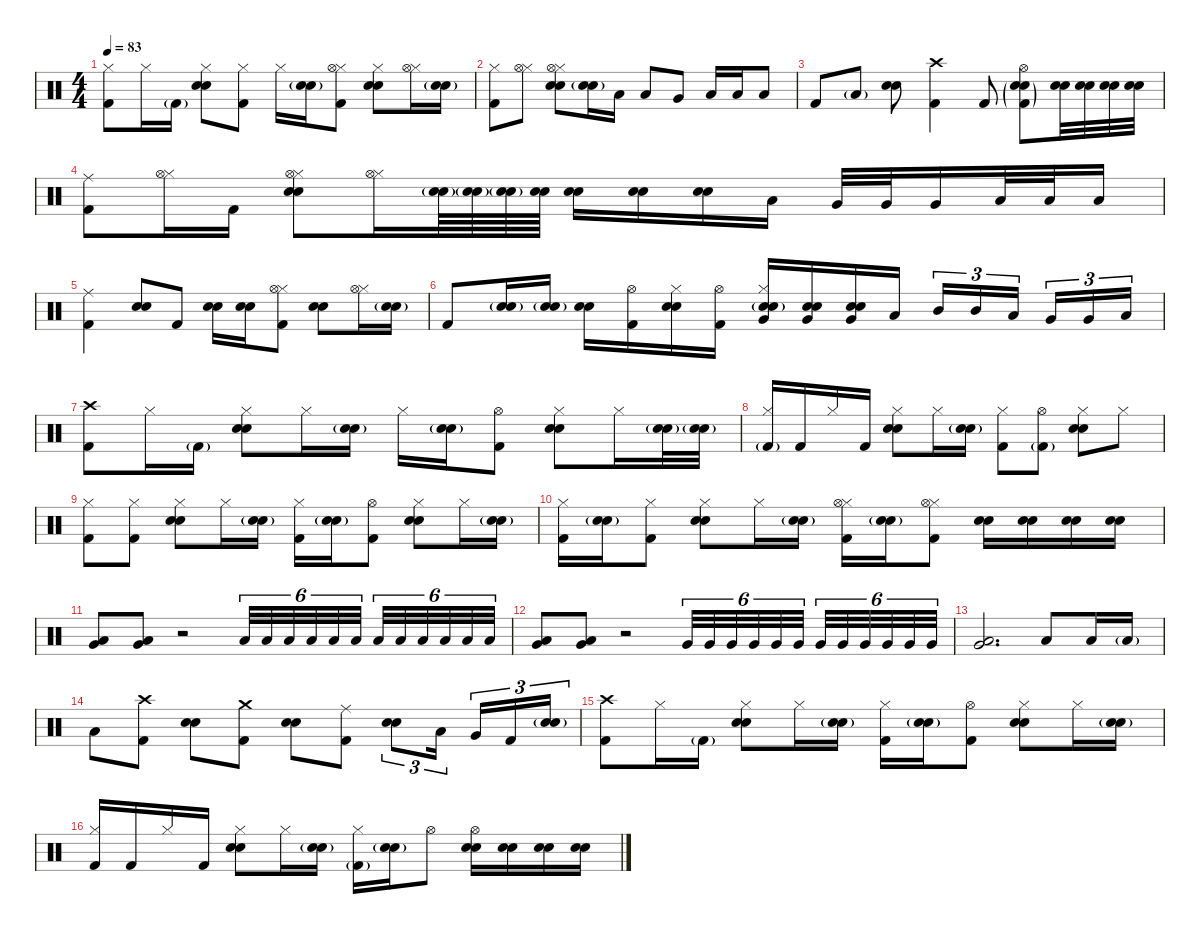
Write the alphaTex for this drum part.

\defaultSystemsLayout 4
\hideDynamics
\bracketExtendMode nobrackets
\singleTrackTrackNamePolicy hidden
\multiTrackTrackNamePolicy hidden
\firstSystemTrackNameMode fullname
\firstSystemTrackNameOrientation horizontal
\otherSystemsTrackNameOrientation horizontal
\track ("Batterie" "drm.") {instrument percussion}
\staff {score}
\articulation defaults
\ts (4 4)
\tempo 83
\clef neutral
\ks c
("Hi-Hat (closed)" "Kick (hit) 2").8{dy f beam Down} "Hi-Hat (closed)".16{beam Down} "Kick (hit) 2"{g}.16{dy mf beam Down} ("Hi-Hat (closed)" "Snare (hit) 2" "Snare (hit) 2").8{dy f beam Down} ("Hi-Hat (closed)" "Kick (hit) 2").8{beam Down} "Hi-Hat (closed)".16{beam Down} ("Snare (hit) 2"{g} "Snare (hit) 2"{g}).16{dy mp beam Down} ("Hi-Hat (closed)" "Hi-Hat (open)" "Kick (hit) 2").8{dy f beam Down} ("Hi-Hat (closed)" "Snare (hit) 2" "Snare (hit) 2").8{beam Down} ("Hi-Hat (closed)" "Hi-Hat (open)").16{beam Down} ("Snare (hit) 2"{g} "Snare (hit) 2"{g}).16{dy mp beam Down} |
("Hi-Hat (closed)" "Kick (hit) 2").8{dy f beam Down} ("Hi-Hat (closed)" "Hi-Hat (open)").8{beam Down} ("Hi-Hat (closed)" "Hi-Hat (open)" "Snare (hit) 2" "Snare (hit) 2").8{beam Down} ("Snare (hit) 2"{g} "Snare (hit) 2"{g}).16{beam Down} "Low Tom (hit)".16{beam Down} "Low Tom (hit)".8{beam Up} "Very Low Tom (hit)".8{beam Up} "Low Floor Tom (hit)".16{beam Up} "Low Floor Tom (hit)".16{beam Up} "Low Floor Tom (hit)".8{beam Up} |
"Kick (hit) 2".8{dy mf beam Up} "Low Tom (hit)"{g}.8{dy f beam Up} ("Snare (hit) 2" "Snare (hit) 2").8{dy mf beam Down} ("Crash high (hit)" "Kick (hit) 2").4{dy f beam Down} "Kick (hit) 2".8{dy mf beam Up} ("Hi-Hat (open)" "Snare (hit) 2"{g} "Snare (hit) 2"{g} "Kick (hit) 2"{g}).8{dy mp beam Down} ("Snare (hit) 2" "Snare (hit) 2").32{dy mf beam Down} ("Snare (hit) 2" "Snare (hit) 2").32{dy mp beam Down} ("Snare (hit) 2" "Snare (hit) 2").32{beam Down} ("Snare (hit) 2" "Snare (hit) 2").32{beam Down} |
("Ride (middle)" "Kick (hit) 2").8{dy mf beam Down} ("Hi-Hat (closed)" "Hi-Hat (open)").16{dy f beam Down} "Kick (hit) 2".16{dy mf beam Down} ("Hi-Hat (closed)" "Hi-Hat (open)" "Snare (hit) 2" "Snare (hit) 2").8{dy f beam Down} ("Hi-Hat (closed)" "Hi-Hat (open)").16{beam Down} ("Snare (hit) 2"{g} "Snare (hit) 2"{g}).64{dy mp beam Down} ("Snare (hit) 2"{g} "Snare (hit) 2"{g}).64{dy mf beam Down} ("Snare (hit) 2"{g} "Snare (hit) 2"{g}).64{beam Down} ("Snare (hit) 2" "Snare (hit) 2").64{dy mp beam Down} ("Snare (hit) 2" "Snare (hit) 2").16{dy mf beam Down} ("Snare (hit) 2" "Snare (hit) 2").16{beam Down} ("Snare (hit) 2" "Snare (hit) 2").16{beam Down} "Low Tom (hit)".16{dy f beam Down} "Very Low Tom (hit)".32{dy ff beam Up} "Very Low Tom (hit)".32{beam Up} "Very Low Tom (hit)".16{beam Up} "Low Floor Tom (hit)".32{beam Up} "Low Floor Tom (hit)".32{beam Up} "Low Floor Tom (hit)".16{beam Up} |
("Ride (middle)" "Kick (hit) 2").4{dy f beam Down} ("Snare (hit) 2" "Snare (hit) 2").8{dy mf beam Up} "Kick (hit) 2".8{beam Up} ("Snare (hit) 2" "Snare (hit) 2").16{dy mp beam Down} ("Snare (hit) 2" "Snare (hit) 2").16{beam Down} ("Hi-Hat (closed)" "Hi-Hat (open)" "Kick (hit) 2").8{dy f beam Down} ("Snare (hit) 2" "Snare (hit) 2").8{dy mf beam Down} ("Hi-Hat (closed)" "Hi-Hat (open)").16{dy f beam Down} ("Snare (hit) 2"{g} "Snare (hit) 2"{g}).16{beam Down} |
"Kick (hit) 2".8{dy mf beam Up} ("Snare (hit) 2"{g} "Snare (hit) 2"{g}).16{beam Up} ("Snare (hit) 2"{g} "Snare (hit) 2"{g}).16{dy f beam Up} ("Snare (hit) 2" "Snare (hit) 2").16{dy mf beam Down} ("Hi-Hat (open)" "Kick (hit) 2").16{beam Down} ("Hi-Hat (closed)" "Snare (hit) 2" "Snare (hit) 2").16{dy f beam Down} ("Hi-Hat (open)" "Kick (hit) 2").16{dy mf beam Down} ("Hi-Hat (closed)" "Snare (hit) 2"{g} "Snare (hit) 2"{g} "Very Low Tom (hit)").16{dy f beam Up} ("Snare (hit) 2" "Snare (hit) 2" "Very Low Tom (hit)").16{dy mf beam Up} ("Snare (hit) 2" "Snare (hit) 2" "Very Low Tom (hit)").16{beam Up} "Low Tom (hit)".16{dy mp beam Up} "Mid Tom (hit)".16{tu (3 2) dy f beam Up} "Mid Tom (hit)".16{tu (3 2) beam Up} "Low Tom (hit)".16{tu (3 2) beam Up} "Very Low Tom (hit)".16{tu (3 2) dy mf beam Up} "Very Low Tom (hit)".16{tu (3 2) beam Up} "Low Floor Tom (hit)".16{tu (3 2) beam Up} |
("Crash high (hit)" "Kick (hit) 2").8{dy mp beam Down} "Hi-Hat (closed)".16{dy f beam Down} "Kick (hit) 2"{g}.16{dy mf beam Down} ("Hi-Hat (closed)" "Snare (hit) 2" "Snare (hit) 2").8{dy f beam Down} "Hi-Hat (closed)".16{beam Down} ("Snare (hit) 2"{g} "Snare (hit) 2"{g}).16{beam Down} "Hi-Hat (closed)".16{beam Down} ("Snare (hit) 2"{g} "Snare (hit) 2"{g}).16{dy mp beam Down} ("Hi-Hat (open)" "Kick (hit) 2").8{beam Down} ("Hi-Hat (closed)" "Snare (hit) 2" "Snare (hit) 2").8{dy f beam Down} "Hi-Hat (closed)".16{beam Down} ("Snare (hit) 2"{g} "Snare (hit) 2"{g}).32{dy p beam Down} ("Snare (hit) 2"{g} "Snare (hit) 2"{g}).32{beam Down} |
("Hi-Hat (closed)" "Kick (hit) 2"{g}).16{dy f beam Up} "Kick (hit) 2".16{dy mf beam Up} "Hi-Hat (closed)".16{dy f beam Up} "Kick (hit) 2".16{dy mf beam Up} ("Hi-Hat (closed)" "Snare (hit) 2" "Snare (hit) 2").8{dy f beam Down} "Hi-Hat (closed)".16{beam Down} ("Snare (hit) 2"{g} "Snare (hit) 2"{g}).16{dy mf beam Down} ("Hi-Hat (closed)" "Kick (hit) 2").8{dy f beam Down} ("Hi-Hat (open)" "Kick (hit) 2"{g}).8{dy mp beam Down} ("Hi-Hat (closed)" "Snare (hit) 2" "Snare (hit) 2").8{dy f beam Down} "Hi-Hat (closed)".8{beam Down} |
("Hi-Hat (closed)" "Kick (hit) 2").8{beam Down} ("Hi-Hat (closed)" "Kick (hit) 2").8{beam Down} ("Hi-Hat (closed)" "Snare (hit) 2" "Snare (hit) 2").8{beam Down} "Hi-Hat (closed)".16{beam Down} ("Snare (hit) 2"{g} "Snare (hit) 2"{g}).16{dy mp beam Down} ("Hi-Hat (closed)" "Kick (hit) 2").16{dy f beam Down} ("Snare (hit) 2"{g} "Snare (hit) 2"{g}).16{dy mp beam Down} ("Hi-Hat (open)" "Kick (hit) 2").8{beam Down} ("Hi-Hat (closed)" "Snare (hit) 2" "Snare (hit) 2").8{dy f beam Down} "Hi-Hat (closed)".16{beam Down} ("Snare (hit) 2"{g} "Snare (hit) 2"{g}).16{dy mp beam Down} |
("Hi-Hat (closed)" "Kick (hit) 2").16{dy f beam Down} ("Snare (hit) 2"{g} "Snare (hit) 2"{g}).16{dy mp beam Down} ("Hi-Hat (closed)" "Kick (hit) 2").8{dy f beam Down} ("Hi-Hat (closed)" "Snare (hit) 2" "Snare (hit) 2").8{beam Down} "Hi-Hat (closed)".16{beam Down} ("Snare (hit) 2"{g} "Snare (hit) 2"{g}).16{dy mp beam Down} ("Hi-Hat (closed)" "Hi-Hat (open)" "Kick (hit) 2").16{dy f beam Down} ("Snare (hit) 2"{g} "Snare (hit) 2"{g}).16{dy mp beam Down} ("Hi-Hat (closed)" "Hi-Hat (open)" "Kick (hit) 2").8{dy f beam Down} ("Snare (hit) 2" "Snare (hit) 2").16{dy mp beam Down} ("Snare (hit) 2" "Snare (hit) 2").16{beam Down} ("Snare (hit) 2" "Snare (hit) 2").16{beam Down} ("Snare (hit) 2" "Snare (hit) 2").16{beam Down} |
("Very Low Tom (hit)" "Low Floor Tom (hit)").8{dy f beam Up} ("Very Low Tom (hit)" "Low Floor Tom (hit)").8{beam Up} r.2{beam Up} "Low Floor Tom (hit)".32{tu (6 4) beam Up} "Low Floor Tom (hit)".32{tu (6 4) dy mf beam Up} "Low Floor Tom (hit)".32{tu (6 4) dy mp beam Up} "Low Floor Tom (hit)".32{tu (6 4) dy p beam Up} "Low Floor Tom (hit)".32{tu (6 4) beam Up} "Low Floor Tom (hit)".32{tu (6 4) beam Up} "Low Floor Tom (hit)".32{tu (6 4) beam Up} "Low Floor Tom (hit)".32{tu (6 4) beam Up} "Low Floor Tom (hit)".32{tu (6 4) dy mp beam Up} "Low Floor Tom (hit)".32{tu (6 4) dy mf beam Up} "Low Floor Tom (hit)".32{tu (6 4) beam Up} "Low Floor Tom (hit)".32{tu (6 4) dy f beam Up} |
("Very Low Tom (hit)" "Low Floor Tom (hit)").8{beam Up} ("Very Low Tom (hit)" "Low Floor Tom (hit)").8{beam Up} r.2{beam Up} "Very Low Tom (hit)".32{tu (6 4) beam Up} "Very Low Tom (hit)".32{tu (6 4) dy mf beam Up} "Very Low Tom (hit)".32{tu (6 4) dy mp beam Up} "Very Low Tom (hit)".32{tu (6 4) dy p beam Up} "Very Low Tom (hit)".32{tu (6 4) beam Up} "Very Low Tom (hit)".32{tu (6 4) beam Up} "Very Low Tom (hit)".32{tu (6 4) beam Up} "Very Low Tom (hit)".32{tu (6 4) beam Up} "Very Low Tom (hit)".32{tu (6 4) dy mp beam Up} "Very Low Tom (hit)".32{tu (6 4) dy mf beam Up} "Very Low Tom (hit)".32{tu (6 4) beam Up} "Very Low Tom (hit)".32{tu (6 4) dy f beam Up} |
("Very Low Tom (hit)" "Low Floor Tom (hit)").2{d beam Up} "Low Floor Tom (hit)".8{beam Up} "Low Floor Tom (hit)".16{beam Up} "Low Floor Tom (hit)"{g}.16{beam Up} |
"Low Floor Tom (hit)".8{beam Down} ("Crash high (hit)" "Kick (hit) 2").8{dy mp beam Down} ("Snare (hit) 2" "Snare (hit) 2").8{dy mf beam Down} ("Crash medium (hit)" "Kick (hit) 2").8{beam Down} ("Snare (hit) 2" "Snare (hit) 2").8{dy mp beam Down} ("Ride (middle)" "Kick (hit) 2").8{dy f beam Down} ("Snare (hit) 2" "Snare (hit) 2").8{tu (3 2) dy mp beam Down} "Low Tom (hit)".16{tu (3 2) dy f beam Down} "Very Low Tom (hit)".16{tu (3 2) beam Up} "Kick (hit) 2".16{tu (3 2) dy mf beam Up} ("Snare (hit) 2"{g} "Snare (hit) 2"{g}).16{tu (3 2) beam Up} |
("Crash high (hit)" "Kick (hit) 2").8{dy mp beam Down} "Hi-Hat (closed)".16{dy f beam Down} "Kick (hit) 2"{g}.16{dy mf beam Down} ("Hi-Hat (closed)" "Snare (hit) 2" "Snare (hit) 2").8{dy f beam Down} "Hi-Hat (closed)".16{beam Down} ("Snare (hit) 2"{g} "Snare (hit) 2"{g}).16{dy mf beam Down} ("Hi-Hat (closed)" "Kick (hit) 2").16{dy f beam Down} ("Snare (hit) 2"{g} "Snare (hit) 2"{g}).16{dy mp beam Down} ("Hi-Hat (open)" "Kick (hit) 2").8{dy mf beam Down} ("Hi-Hat (closed)" "Snare (hit) 2" "Snare (hit) 2").8{dy f beam Down} "Hi-Hat (closed)".16{beam Down} ("Snare (hit) 2"{g} "Snare (hit) 2"{g}).16{dy mp beam Down} |
("Hi-Hat (closed)" "Kick (hit) 2").16{dy f beam Up} "Kick (hit) 2".16{dy mf beam Up} "Hi-Hat (closed)".16{dy f beam Up} "Kick (hit) 2".16{dy mf beam Up} ("Hi-Hat (closed)" "Snare (hit) 2" "Snare (hit) 2").8{dy f beam Down} "Hi-Hat (closed)".16{beam Down} ("Snare (hit) 2"{g} "Snare (hit) 2"{g}).16{dy mf beam Down} ("Hi-Hat (closed)" "Kick (hit) 2"{g}).16{dy f beam Down} ("Snare (hit) 2"{g} "Snare (hit) 2"{g}).16{dy mp beam Down} "Hi-Hat (open)".8{beam Down} ("Hi-Hat (open)" "Snare (hit) 2" "Snare (hit) 2").16{beam Down} ("Snare (hit) 2" "Snare (hit) 2").16{beam Down} ("Snare (hit) 2" "Snare (hit) 2").16{beam Down} ("Snare (hit) 2" "Snare (hit) 2").16{beam Down}
